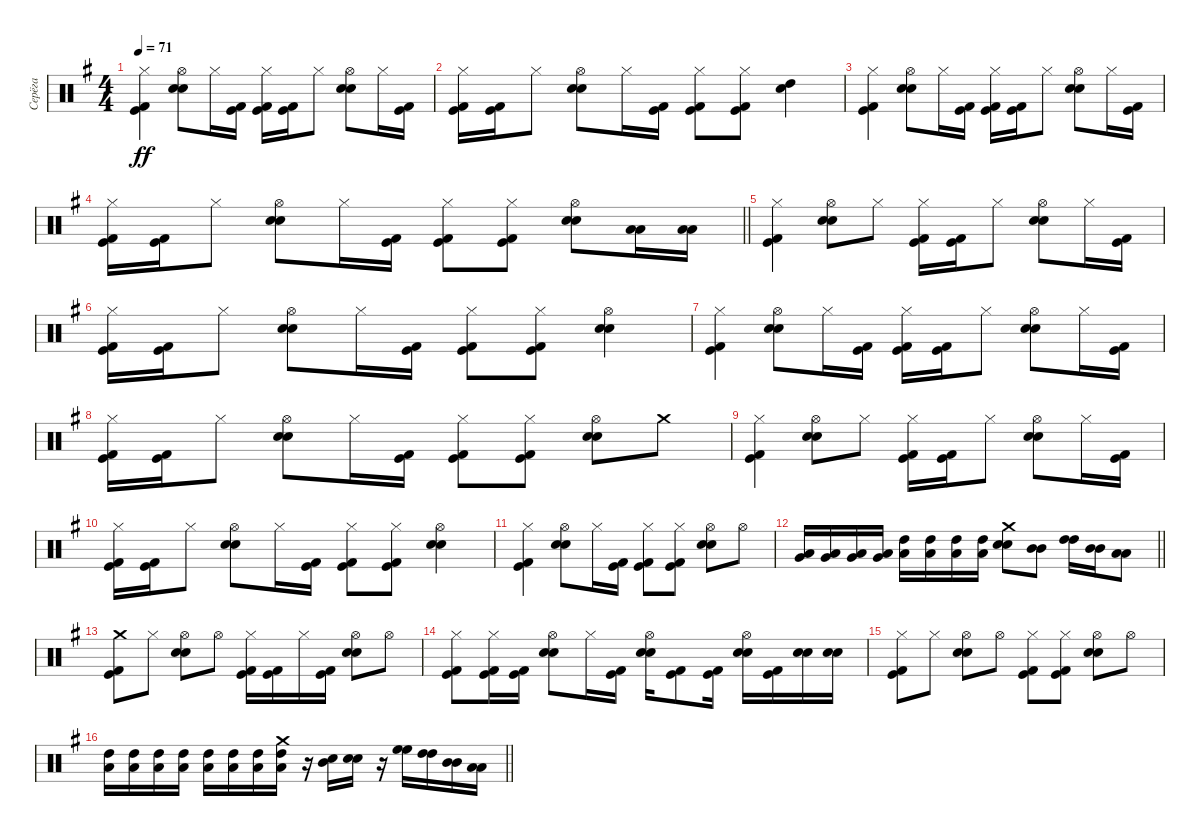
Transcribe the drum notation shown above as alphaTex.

\track ("Серёга" "Серёга") {instrument percussion}
\staff {score}
\articulation defaults
\ts (4 4)
\tempo 71
\clef neutral
\ks eminor
("Hi-Hat (closed)" "Kick (hit)" "Kick (hit) 2").4{dy ff} ("Hi-Hat (open)" "Electric Snare (hit)" "Snare (hit) 2").8 "Hi-Hat (closed)".16 ("Kick (hit)" "Kick (hit) 2").16 ("Hi-Hat (closed)" "Kick (hit)" "Kick (hit) 2").16 ("Kick (hit)" "Kick (hit) 2").16 "Hi-Hat (closed)".8 ("Hi-Hat (open)" "Snare (hit) 2" "Electric Snare (hit)").8 "Hi-Hat (closed)".16 ("Kick (hit)" "Kick (hit) 2").16 |
("Hi-Hat (closed)" "Kick (hit)" "Kick (hit) 2").16 ("Kick (hit)" "Kick (hit) 2").16 "Hi-Hat (closed)".8 ("Hi-Hat (open)" "Electric Snare (hit)" "Snare (hit) 2").8 "Hi-Hat (closed)".16 ("Kick (hit)" "Kick (hit) 2").16 ("Hi-Hat (closed)" "Kick (hit)" "Kick (hit) 2").8 ("Hi-Hat (closed)" "Kick (hit)" "Kick (hit) 2").8 ("High Tom (hit)" "Snare (hit) 2").4 |
("Hi-Hat (closed)" "Kick (hit)" "Kick (hit) 2").4 ("Hi-Hat (open)" "Electric Snare (hit)" "Snare (hit) 2").8 "Hi-Hat (closed)".16 ("Kick (hit)" "Kick (hit) 2").16 ("Hi-Hat (closed)" "Kick (hit)" "Kick (hit) 2").16 ("Kick (hit)" "Kick (hit) 2").16 "Hi-Hat (closed)".8 ("Hi-Hat (open)" "Snare (hit) 2" "Electric Snare (hit)").8 "Hi-Hat (closed)".16 ("Kick (hit)" "Kick (hit) 2").16 |
\barLineRight lightlight
("Hi-Hat (closed)" "Kick (hit)" "Kick (hit) 2").16 ("Kick (hit)" "Kick (hit) 2").16 "Hi-Hat (closed)".8 ("Hi-Hat (open)" "Electric Snare (hit)" "Snare (hit) 2").8 "Hi-Hat (closed)".16 ("Kick (hit)" "Kick (hit) 2").16 ("Hi-Hat (closed)" "Kick (hit)" "Kick (hit) 2").8 ("Hi-Hat (closed)" "Kick (hit)" "Kick (hit) 2").8 ("Hi-Hat (open)" "Snare (hit) 2" "Electric Snare (hit)").8 ("Low Tom (hit)" "Low Tom (hit)").16 ("Low Tom (hit)" "Low Tom (hit)").16 |
("Hi-Hat (closed)" "Kick (hit)" "Kick (hit) 2").4 ("Hi-Hat (open)" "Electric Snare (hit)" "Snare (hit) 2").8 "Hi-Hat (closed)".8 ("Hi-Hat (closed)" "Kick (hit)" "Kick (hit) 2").16 ("Kick (hit)" "Kick (hit) 2").16 "Hi-Hat (closed)".8 ("Hi-Hat (open)" "Snare (hit) 2" "Electric Snare (hit)").8 "Hi-Hat (closed)".16 ("Kick (hit)" "Kick (hit) 2").16 |
("Hi-Hat (closed)" "Kick (hit)" "Kick (hit) 2").16 ("Kick (hit)" "Kick (hit) 2").16 "Hi-Hat (closed)".8 ("Hi-Hat (open)" "Electric Snare (hit)" "Snare (hit) 2").8 "Hi-Hat (closed)".16 ("Kick (hit)" "Kick (hit) 2").16 ("Hi-Hat (closed)" "Kick (hit)" "Kick (hit) 2").8 ("Hi-Hat (closed)" "Kick (hit)" "Kick (hit) 2").8 ("Hi-Hat (open)" "Snare (hit) 2" "Electric Snare (hit)").4 |
("Hi-Hat (closed)" "Kick (hit)" "Kick (hit) 2").4 ("Hi-Hat (open)" "Electric Snare (hit)" "Snare (hit) 2").8 "Hi-Hat (closed)".16 ("Kick (hit)" "Kick (hit) 2").16 ("Hi-Hat (closed)" "Kick (hit)" "Kick (hit) 2").16 ("Kick (hit)" "Kick (hit) 2").16 "Hi-Hat (closed)".8 ("Hi-Hat (open)" "Snare (hit) 2" "Electric Snare (hit)").8 "Hi-Hat (closed)".16 ("Kick (hit)" "Kick (hit) 2").16 |
("Hi-Hat (closed)" "Kick (hit)" "Kick (hit) 2").16 ("Kick (hit)" "Kick (hit) 2").16 "Hi-Hat (closed)".8 ("Hi-Hat (open)" "Electric Snare (hit)" "Snare (hit) 2").8 "Hi-Hat (closed)".16 ("Kick (hit)" "Kick (hit) 2").16 ("Hi-Hat (closed)" "Kick (hit)" "Kick (hit) 2").8 ("Hi-Hat (closed)" "Kick (hit)" "Kick (hit) 2").8 ("Hi-Hat (open)" "Snare (hit) 2" "Electric Snare (hit)").8 "Crash medium (hit)".8 |
("Hi-Hat (closed)" "Kick (hit)" "Kick (hit) 2").4 ("Hi-Hat (open)" "Electric Snare (hit)" "Snare (hit) 2").8 "Hi-Hat (closed)".8 ("Hi-Hat (closed)" "Kick (hit)" "Kick (hit) 2").16 ("Kick (hit)" "Kick (hit) 2").16 "Hi-Hat (closed)".8 ("Hi-Hat (open)" "Snare (hit) 2" "Electric Snare (hit)").8 "Hi-Hat (closed)".16 ("Kick (hit)" "Kick (hit) 2").16 |
("Hi-Hat (closed)" "Kick (hit)" "Kick (hit) 2").16 ("Kick (hit)" "Kick (hit) 2").16 "Hi-Hat (closed)".8 ("Hi-Hat (open)" "Electric Snare (hit)" "Snare (hit) 2").8 "Hi-Hat (closed)".16 ("Kick (hit)" "Kick (hit) 2").16 ("Hi-Hat (closed)" "Kick (hit)" "Kick (hit) 2").8 ("Hi-Hat (closed)" "Kick (hit)" "Kick (hit) 2").8 ("Hi-Hat (open)" "Electric Snare (hit)" "Snare (hit) 2").4 |
("Hi-Hat (closed)" "Kick (hit)" "Kick (hit) 2").4 ("Hi-Hat (open)" "Electric Snare (hit)" "Snare (hit) 2").8 "Hi-Hat (closed)".16 ("Kick (hit)" "Kick (hit) 2").16 ("Hi-Hat (closed)" "Kick (hit)" "Kick (hit) 2").8 ("Hi-Hat (closed)" "Kick (hit)" "Kick (hit) 2").8 ("Hi-Hat (open)" "Electric Snare (hit)" "Snare (hit) 2").8 "Hi-Hat (open)".8 |
\barLineRight lightlight
("Low Tom (hit)" "Very Low Tom (hit)").16 ("Low Tom (hit)" "Very Low Tom (hit)").16 ("Low Tom (hit)" "Very Low Tom (hit)").16 ("Low Tom (hit)" "Very Low Tom (hit)").16 ("Low Tom (hit)" "High Tom (hit)").16 ("Low Tom (hit)" "High Tom (hit)").16 ("Low Tom (hit)" "High Tom (hit)").16 ("Low Tom (hit)" "High Tom (hit)").16 ("Crash medium (hit)" "Electric Snare (hit)" "Snare (hit) 2").8 ("Mid Tom (hit)" "Mid Tom (hit)").8 ("High Tom (hit)" "High Tom (hit)").16 ("Mid Tom (hit)" "Mid Tom (hit)").16 ("Low Tom (hit)" "Low Tom (hit)").8 |
("Crash medium (hit)" "Kick (hit) 2" "Kick (hit)").8 "Hi-Hat (closed)".8 ("Hi-Hat (open)" "Snare (hit) 2" "Electric Snare (hit)").8 "Hi-Hat (open)".8 ("Hi-Hat (closed)" "Kick (hit)" "Kick (hit) 2").16 ("Kick (hit)" "Kick (hit) 2").16 "Hi-Hat (closed)".16 ("Kick (hit)" "Kick (hit) 2").16 ("Hi-Hat (open)" "Snare (hit) 2" "Electric Snare (hit)").8 "Hi-Hat (open)".8 |
("Hi-Hat (closed)" "Kick (hit)" "Kick (hit) 2").8 ("Hi-Hat (closed)" "Kick (hit)" "Kick (hit) 2").16 ("Kick (hit)" "Kick (hit) 2").16 ("Hi-Hat (open)" "Snare (hit) 2" "Electric Snare (hit)").8 "Hi-Hat (closed)".16 ("Kick (hit)" "Kick (hit) 2").16 ("Hi-Hat (open)" "Snare (hit) 2" "Electric Snare (hit)").16 ("Kick (hit) 2" "Kick (hit)").8 ("Kick (hit) 2" "Kick (hit)").16 ("Hi-Hat (open)" "Electric Snare (hit)" "Snare (hit) 2").16 ("Kick (hit)" "Kick (hit) 2").16 ("Electric Snare (hit)" "Snare (hit) 2").16 ("Electric Snare (hit)" "Snare (hit) 2").16 |
("Hi-Hat (closed)" "Kick (hit) 2" "Kick (hit)").8 "Hi-Hat (closed)".8 ("Hi-Hat (open)" "Electric Snare (hit)" "Snare (hit) 2").8 "Hi-Hat (open)".8 ("Hi-Hat (closed)" "Kick (hit)" "Kick (hit) 2").8 ("Hi-Hat (closed)" "Kick (hit)" "Kick (hit) 2").8 ("Hi-Hat (open)" "Electric Snare (hit)" "Snare (hit) 2").8 "Hi-Hat (open)".8 |
\barLineRight lightlight
("Low Tom (hit)" "High Tom (hit)").16 ("Low Tom (hit)" "High Tom (hit)").16 ("Low Tom (hit)" "High Tom (hit)").16 ("Low Tom (hit)" "High Tom (hit)").16 ("Low Tom (hit)" "High Tom (hit)").16 ("Low Tom (hit)" "High Tom (hit)").16 ("Low Tom (hit)" "High Tom (hit)").16 ("Crash medium (hit)" "Low Tom (hit)" "High Tom (hit)").16 r.16 ("Mid Tom (hit)" "Snare (hit) 2").16 ("Snare (hit) 2" "Electric Snare (hit)").16 r.16 ("High Floor Tom (hit)" "High Floor Tom (hit)").16 ("High Tom (hit)" "High Tom (hit)").16 ("Mid Tom (hit)" "Mid Tom (hit)").16 ("Low Tom (hit)" "Low Tom (hit)").16
